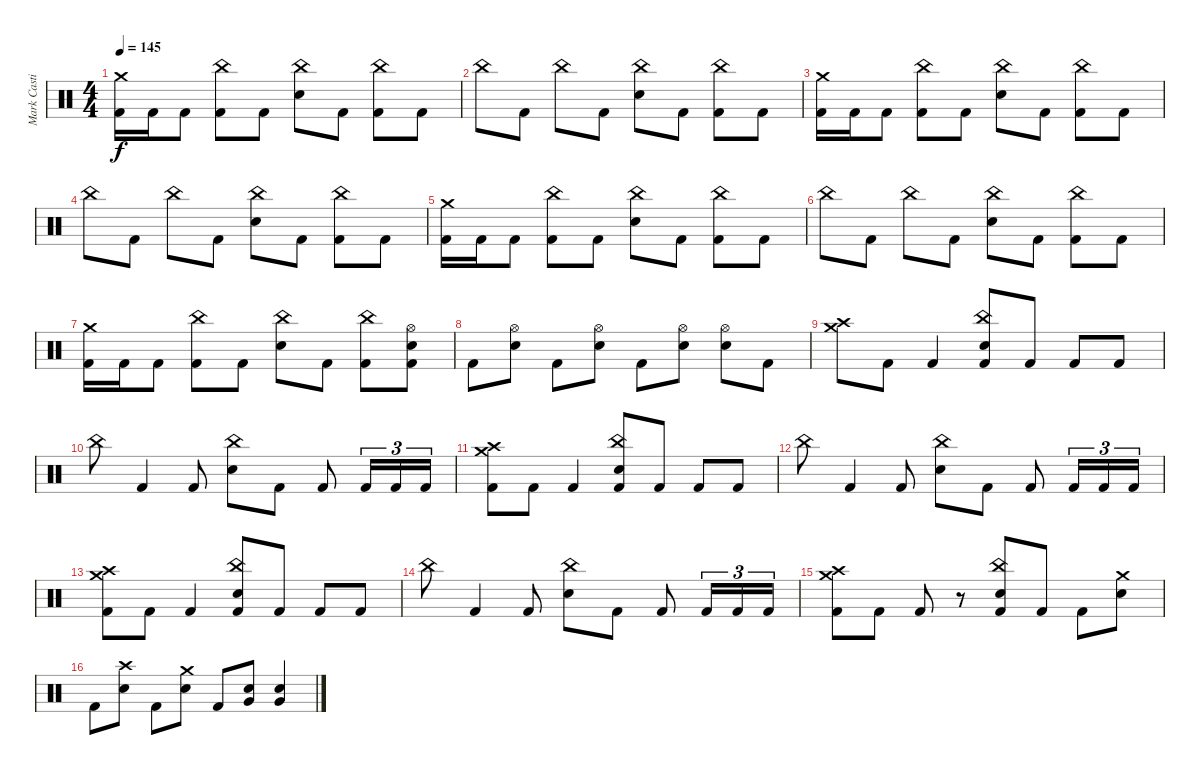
\track ("Mark Castillo" "Mark Casti") {instrument percussion}
\staff {score}
\articulation defaults
\ts (4 4)
\tempo 145
\clef neutral
\ks c
("Crash medium (hit)" "Kick (hit) 2").16{dy f} "Kick (hit) 2".16 "Kick (hit) 2".8 ("China (hit)" "Kick (hit) 2").8 "Kick (hit) 2".8 ("China (hit)" "Electric Snare (hit)").8 "Kick (hit) 2".8 ("China (hit)" "Kick (hit) 2").8 "Kick (hit) 2".8 |
"China (hit)".8 "Kick (hit) 2".8 "China (hit)".8 "Kick (hit) 2".8 ("China (hit)" "Electric Snare (hit)").8 "Kick (hit) 2".8 ("China (hit)" "Kick (hit) 2").8 "Kick (hit) 2".8 |
("Crash medium (hit)" "Kick (hit) 2").16 "Kick (hit) 2".16 "Kick (hit) 2".8 ("China (hit)" "Kick (hit) 2").8 "Kick (hit) 2".8 ("China (hit)" "Electric Snare (hit)").8 "Kick (hit) 2".8 ("China (hit)" "Kick (hit) 2").8 "Kick (hit) 2".8 |
"China (hit)".8 "Kick (hit) 2".8 "China (hit)".8 "Kick (hit) 2".8 ("China (hit)" "Electric Snare (hit)").8 "Kick (hit) 2".8 ("China (hit)" "Kick (hit) 2").8 "Kick (hit) 2".8 |
("Crash medium (hit)" "Kick (hit) 2").16 "Kick (hit) 2".16 "Kick (hit) 2".8 ("China (hit)" "Kick (hit) 2").8 "Kick (hit) 2".8 ("China (hit)" "Electric Snare (hit)").8 "Kick (hit) 2".8 ("China (hit)" "Kick (hit) 2").8 "Kick (hit) 2".8 |
"China (hit)".8 "Kick (hit) 2".8 "China (hit)".8 "Kick (hit) 2".8 ("China (hit)" "Electric Snare (hit)").8 "Kick (hit) 2".8 ("China (hit)" "Kick (hit) 2").8 "Kick (hit) 2".8 |
("Crash medium (hit)" "Kick (hit) 2").16 "Kick (hit) 2".16 "Kick (hit) 2".8 ("China (hit)" "Kick (hit) 2").8 "Kick (hit) 2".8 ("China (hit)" "Electric Snare (hit)").8 "Kick (hit) 2".8 ("China (hit)" "Kick (hit) 2").8 ("Hi-Hat (open)" "Electric Snare (hit)" "Kick (hit) 2").8 |
"Kick (hit) 2".8 ("Hi-Hat (open)" "Electric Snare (hit)").8 "Kick (hit) 2".8 ("Hi-Hat (open)" "Electric Snare (hit)").8 "Kick (hit) 2".8 ("Hi-Hat (open)" "Electric Snare (hit)").8 ("Hi-Hat (open)" "Electric Snare (hit)").8 "Kick (hit) 2".8 |
("Crash high (hit)" "Crash medium (hit)").8 "Kick (hit) 2".8 "Kick (hit) 2".4 ("China (hit)" "Electric Snare (hit)" "Kick (hit) 2").8 "Kick (hit) 2".8 "Kick (hit) 2".8 "Kick (hit) 2".8 |
"China (hit)".8 "Kick (hit) 2".4 "Kick (hit) 2".8 ("China (hit)" "Electric Snare (hit)").8 "Kick (hit) 2".8 "Kick (hit) 2".8 "Kick (hit) 2".16{tu (3 2)} "Kick (hit) 2".16{tu (3 2)} "Kick (hit) 2".16{tu (3 2)} |
("Crash high (hit)" "Crash medium (hit)" "Kick (hit) 2").8 "Kick (hit) 2".8 "Kick (hit) 2".4 ("China (hit)" "Electric Snare (hit)" "Kick (hit) 2").8 "Kick (hit) 2".8 "Kick (hit) 2".8 "Kick (hit) 2".8 |
"China (hit)".8 "Kick (hit) 2".4 "Kick (hit) 2".8 ("China (hit)" "Electric Snare (hit)").8 "Kick (hit) 2".8 "Kick (hit) 2".8 "Kick (hit) 2".16{tu (3 2)} "Kick (hit) 2".16{tu (3 2)} "Kick (hit) 2".16{tu (3 2)} |
("Crash high (hit)" "Crash medium (hit)" "Kick (hit) 2").8 "Kick (hit) 2".8 "Kick (hit) 2".4 ("China (hit)" "Electric Snare (hit)" "Kick (hit) 2").8 "Kick (hit) 2".8 "Kick (hit) 2".8 "Kick (hit) 2".8 |
"China (hit)".8 "Kick (hit) 2".4 "Kick (hit) 2".8 ("China (hit)" "Electric Snare (hit)").8 "Kick (hit) 2".8 "Kick (hit) 2".8 "Kick (hit) 2".16{tu (3 2)} "Kick (hit) 2".16{tu (3 2)} "Kick (hit) 2".16{tu (3 2)} |
("Crash high (hit)" "Crash medium (hit)" "Kick (hit) 2").8 "Kick (hit) 2".8 "Kick (hit) 2".8 r.8 ("China (hit)" "Electric Snare (hit)" "Kick (hit) 2").8 "Kick (hit) 2".8 "Kick (hit) 2".8 ("Crash medium (hit)" "Electric Snare (hit)").8 |
"Kick (hit) 2".8 ("Crash high (hit)" "Electric Snare (hit)").8 "Kick (hit) 2".8 ("Crash medium (hit)" "Electric Snare (hit)").8 "Kick (hit) 2".8 ("Very Low Tom (hit)" "Electric Snare (hit)").8 ("Very Low Tom (hit)" "Electric Snare (hit)").4
